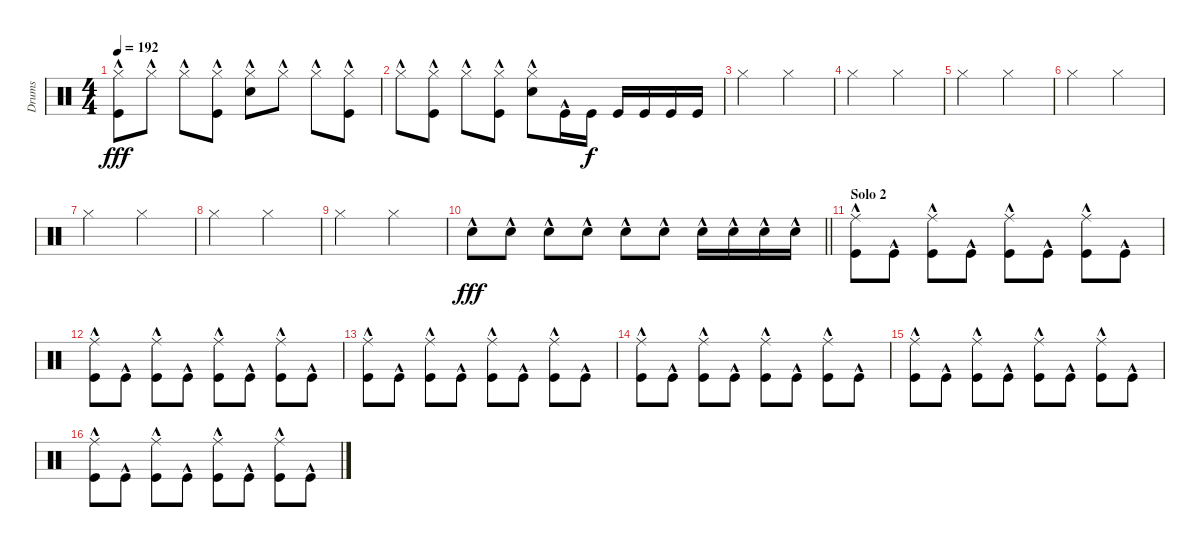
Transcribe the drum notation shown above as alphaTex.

\track ("Drums" "Drums") {instrument percussion}
\staff {score}
\articulation defaults
\ts (4 4)
\tempo 192
\clef neutral
\ks c
("Kick (hit)"{hac} "Hi-Hat (closed)"{hac}).8{dy fff} "Hi-Hat (closed)"{hac}.8 "Hi-Hat (closed)"{hac}.8 ("Kick (hit)"{hac} "Hi-Hat (closed)"{hac}).8 ("Snare (hit) 2"{hac} "Hi-Hat (closed)"{hac}).8 "Hi-Hat (closed)"{hac}.8 "Hi-Hat (closed)"{hac}.8 ("Kick (hit)"{hac} "Hi-Hat (closed)"{hac}).8 |
"Hi-Hat (closed)"{hac}.8 ("Kick (hit)"{hac} "Hi-Hat (closed)"{hac}).8 "Hi-Hat (closed)"{hac}.8 ("Kick (hit)"{hac} "Hi-Hat (closed)"{hac}).8 ("Snare (hit) 2"{hac} "Hi-Hat (closed)"{hac}).8 "Kick (hit)"{hac}.16 "Kick (hit)".16{dy f} "Kick (hit)".16 "Kick (hit)".16 "Kick (hit)".16 "Kick (hit)".16 |
"Hi-Hat (closed)".2 "Hi-Hat (closed)".2 |
"Hi-Hat (closed)".2 "Hi-Hat (closed)".2 |
"Hi-Hat (closed)".2 "Hi-Hat (closed)".2 |
"Hi-Hat (closed)".2 "Hi-Hat (closed)".2 |
"Hi-Hat (closed)".2 "Hi-Hat (closed)".2 |
"Hi-Hat (closed)".2 "Hi-Hat (closed)".2 |
"Hi-Hat (closed)".2 "Hi-Hat (closed)".2 |
\barLineRight lightlight "Snare (hit) 2"{hac}.8{dy fff} "Snare (hit) 2"{hac}.8 "Snare (hit) 2"{hac}.8 "Snare (hit) 2"{hac}.8 "Snare (hit) 2"{hac}.8 "Snare (hit) 2"{hac}.8 "Snare (hit) 2"{hac}.16 "Snare (hit) 2"{hac}.16 "Snare (hit) 2"{hac}.16 "Snare (hit) 2"{hac}.16
|
\section ("" "Solo 2")
("Ride (middle)"{hac} "Kick (hit)"{hac}).8 "Kick (hit)"{hac}.8 ("Ride (middle)"{hac} "Kick (hit)"{hac}).8 "Kick (hit)"{hac}.8 ("Ride (middle)"{hac} "Kick (hit)"{hac}).8 "Kick (hit)"{hac}.8 ("Ride (middle)"{hac} "Kick (hit)"{hac}).8 "Kick (hit)"{hac}.8 |
("Ride (middle)"{hac} "Kick (hit)"{hac}).8 "Kick (hit)"{hac}.8 ("Ride (middle)"{hac} "Kick (hit)"{hac}).8 "Kick (hit)"{hac}.8 ("Ride (middle)"{hac} "Kick (hit)"{hac}).8 "Kick (hit)"{hac}.8 ("Ride (middle)"{hac} "Kick (hit)"{hac}).8 "Kick (hit)"{hac}.8 |
("Ride (middle)"{hac} "Kick (hit)"{hac}).8 "Kick (hit)"{hac}.8 ("Ride (middle)"{hac} "Kick (hit)"{hac}).8 "Kick (hit)"{hac}.8 ("Ride (middle)"{hac} "Kick (hit)"{hac}).8 "Kick (hit)"{hac}.8 ("Ride (middle)"{hac} "Kick (hit)"{hac}).8 "Kick (hit)"{hac}.8 |
("Ride (middle)"{hac} "Kick (hit)"{hac}).8 "Kick (hit)"{hac}.8 ("Ride (middle)"{hac} "Kick (hit)"{hac}).8 "Kick (hit)"{hac}.8 ("Ride (middle)"{hac} "Kick (hit)"{hac}).8 "Kick (hit)"{hac}.8 ("Ride (middle)"{hac} "Kick (hit)"{hac}).8 "Kick (hit)"{hac}.8 |
("Ride (middle)"{hac} "Kick (hit)"{hac}).8 "Kick (hit)"{hac}.8 ("Ride (middle)"{hac} "Kick (hit)"{hac}).8 "Kick (hit)"{hac}.8 ("Ride (middle)"{hac} "Kick (hit)"{hac}).8 "Kick (hit)"{hac}.8 ("Ride (middle)"{hac} "Kick (hit)"{hac}).8 "Kick (hit)"{hac}.8 |
("Ride (middle)"{hac} "Kick (hit)"{hac}).8 "Kick (hit)"{hac}.8 ("Ride (middle)"{hac} "Kick (hit)"{hac}).8 "Kick (hit)"{hac}.8 ("Ride (middle)"{hac} "Kick (hit)"{hac}).8 "Kick (hit)"{hac}.8 ("Ride (middle)"{hac} "Kick (hit)"{hac}).8 "Kick (hit)"{hac}.8
